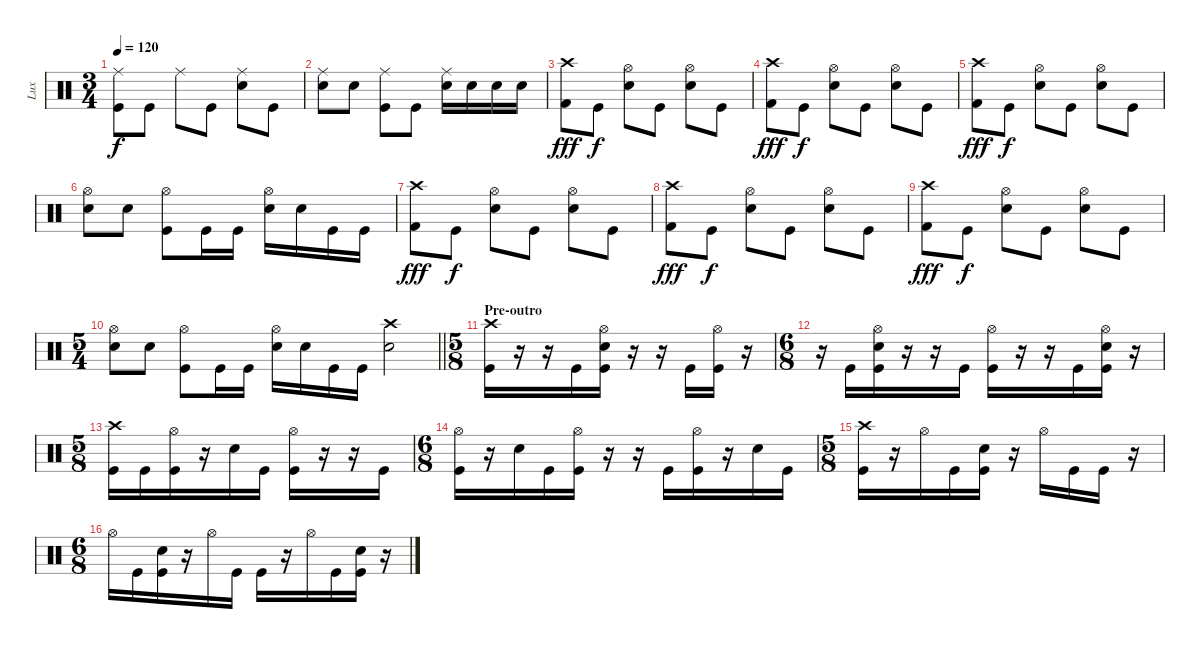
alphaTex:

\track ("Lux" "Lux") {solo instrument percussion}
\staff {score}
\articulation defaults
\ts (3 4)
\tempo 120
\clef neutral
\ks c
("Ride (middle)" "Kick (hit)").8{dy f} "Kick (hit)".8 "Ride (middle)".8 "Kick (hit)".8 ("Ride (middle)" "Snare (hit) 2").8 "Kick (hit)".8 |
("Ride (middle)" "Snare (hit) 2").8 "Snare (hit) 2".8 ("Ride (middle)" "Kick (hit)").8 "Kick (hit)".8 ("Ride (middle)" "Snare (hit) 2").16 "Snare (hit) 2".16 "Snare (hit) 2".16 "Snare (hit) 2".16 |
("Crash high (hit)" "Kick (hit) 2").8{dy fff} "Kick (hit)".8{dy f} ("Hi-Hat (open)" "Snare (hit) 2").8 "Kick (hit)".8 ("Hi-Hat (open)" "Snare (hit) 2").8 "Kick (hit)".8 |
("Crash high (hit)" "Kick (hit) 2").8{dy fff} "Kick (hit)".8{dy f} ("Hi-Hat (open)" "Snare (hit) 2").8 "Kick (hit)".8 ("Hi-Hat (open)" "Snare (hit) 2").8 "Kick (hit)".8 |
("Crash high (hit)" "Kick (hit) 2").8{dy fff} "Kick (hit)".8{dy f} ("Hi-Hat (open)" "Snare (hit) 2").8 "Kick (hit)".8 ("Hi-Hat (open)" "Snare (hit) 2").8 "Kick (hit)".8 |
("Hi-Hat (open)" "Snare (hit) 2").8 "Snare (hit) 2".8 ("Hi-Hat (open)" "Kick (hit)").8 "Kick (hit)".16 "Kick (hit)".16 ("Hi-Hat (open)" "Snare (hit) 2").16 "Snare (hit) 2".16 "Kick (hit)".16 "Kick (hit)".16 |
("Crash high (hit)" "Kick (hit) 2").8{dy fff} "Kick (hit)".8{dy f} ("Hi-Hat (open)" "Snare (hit) 2").8 "Kick (hit)".8 ("Hi-Hat (open)" "Snare (hit) 2").8 "Kick (hit)".8 |
("Crash high (hit)" "Kick (hit) 2").8{dy fff} "Kick (hit)".8{dy f} ("Hi-Hat (open)" "Snare (hit) 2").8 "Kick (hit)".8 ("Hi-Hat (open)" "Snare (hit) 2").8 "Kick (hit)".8 |
("Crash high (hit)" "Kick (hit) 2").8{dy fff} "Kick (hit)".8{dy f} ("Hi-Hat (open)" "Snare (hit) 2").8 "Kick (hit)".8 ("Hi-Hat (open)" "Snare (hit) 2").8 "Kick (hit)".8 |
\ts (5 4)
\barLineRight lightlight
("Hi-Hat (open)" "Snare (hit) 2").8 "Snare (hit) 2".8 ("Hi-Hat (open)" "Kick (hit)").8 "Kick (hit)".16 "Kick (hit)".16 ("Hi-Hat (open)" "Snare (hit) 2").16 "Snare (hit) 2".16 "Kick (hit)".16 "Kick (hit)".16 ("Crash high (hit)" "Snare (hit) 2").2 |
\ts (5 8)
\section ("" "Pre-outro")
("Crash high (hit)" "Kick (hit)").16 r.16 r.16 "Kick (hit)".16 ("Hi-Hat (open)" "Snare (hit) 2" "Kick (hit)").16 r.16 r.16 "Kick (hit)".16 ("Hi-Hat (open)" "Kick (hit)").16 r.16 |
\ts (6 8)
r.16 "Kick (hit)".16 ("Hi-Hat (open)" "Snare (hit) 2" "Kick (hit)").16 r.16 r.16 "Kick (hit)".16 ("Hi-Hat (open)" "Kick (hit)").16 r.16 r.16 "Kick (hit)".16 ("Hi-Hat (open)" "Snare (hit) 2" "Kick (hit)").16 r.16 |
\ts (5 8)
("Crash high (hit)" "Kick (hit)").16 "Kick (hit)".16 ("Hi-Hat (open)" "Kick (hit)").16 r.16 "Snare (hit) 2".16 "Kick (hit)".16 ("Hi-Hat (open)" "Kick (hit)").16 r.16 r.16 "Kick (hit)".16 |
\ts (6 8)
("Hi-Hat (open)" "Kick (hit)").16 r.16 "Snare (hit) 2".16 "Kick (hit)".16 ("Hi-Hat (open)" "Kick (hit)").16 r.16 r.16 "Kick (hit)".16 ("Hi-Hat (open)" "Kick (hit)").16 r.16 "Snare (hit) 2".16 "Kick (hit)".16 |
\ts (5 8)
("Crash high (hit)" "Kick (hit)").16 r.16 "Hi-Hat (open)".16 "Kick (hit)".16 ("Snare (hit) 2" "Kick (hit)").16 r.16 "Hi-Hat (open)".16 "Kick (hit)".16 "Kick (hit)".16 r.16 |
\ts (6 8)
"Hi-Hat (open)".16 "Kick (hit)".16 ("Snare (hit) 2" "Kick (hit)").16 r.16 "Hi-Hat (open)".16 "Kick (hit)".16 "Kick (hit)".16 r.16 "Hi-Hat (open)".16 "Kick (hit)".16 ("Snare (hit) 2" "Kick (hit)").16 r.16
